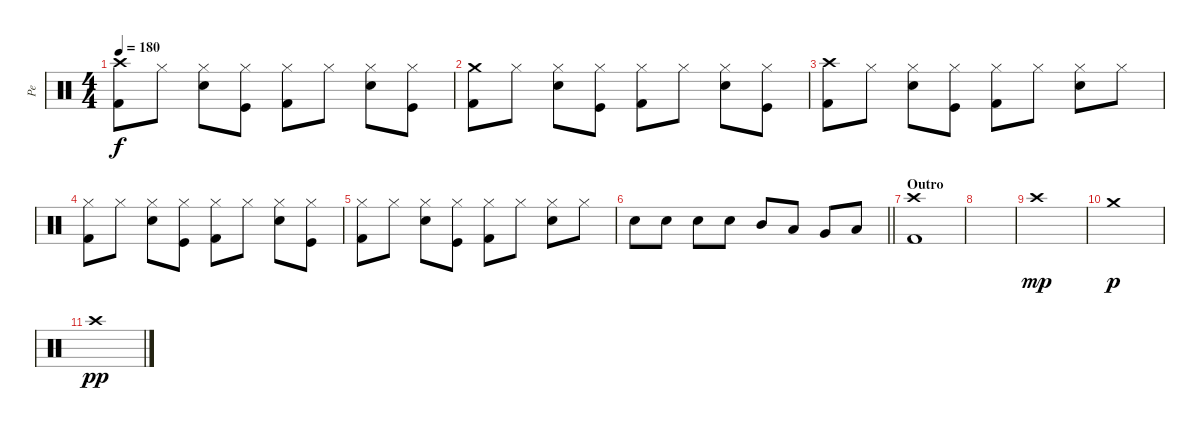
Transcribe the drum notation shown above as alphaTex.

\track ("Pe" "Pe") {instrument percussion}
\staff {score}
\articulation defaults
\ts (4 4)
\tempo 180
\clef neutral
\ks c
("Kick (hit) 2" "Crash high (hit)").8{dy f} "Hi-Hat (closed)".8 ("Electric Snare (hit)" "Hi-Hat (closed)").8 ("Kick (hit)" "Hi-Hat (closed)").8 ("Kick (hit) 2" "Hi-Hat (closed)").8 "Hi-Hat (closed)".8 ("Electric Snare (hit)" "Hi-Hat (closed)").8 ("Kick (hit)" "Hi-Hat (closed)").8 |
("Kick (hit) 2" "Crash medium (hit)").8 "Hi-Hat (closed)".8 ("Electric Snare (hit)" "Hi-Hat (closed)").8 ("Kick (hit)" "Hi-Hat (closed)").8 ("Kick (hit) 2" "Hi-Hat (closed)").8 "Hi-Hat (closed)".8 ("Electric Snare (hit)" "Hi-Hat (closed)").8 ("Kick (hit)" "Hi-Hat (closed)").8 |
("Kick (hit) 2" "Crash high (hit)").8 "Hi-Hat (closed)".8 ("Electric Snare (hit)" "Hi-Hat (closed)").8 ("Kick (hit)" "Hi-Hat (closed)").8 ("Kick (hit) 2" "Hi-Hat (closed)").8 "Hi-Hat (closed)".8 ("Electric Snare (hit)" "Hi-Hat (closed)").8 "Hi-Hat (closed)".8 |
("Kick (hit) 2" "Hi-Hat (closed)").8 "Hi-Hat (closed)".8 ("Electric Snare (hit)" "Hi-Hat (closed)").8 ("Kick (hit)" "Hi-Hat (closed)").8 ("Kick (hit) 2" "Hi-Hat (closed)").8 "Hi-Hat (closed)".8 ("Electric Snare (hit)" "Hi-Hat (closed)").8 ("Kick (hit)" "Hi-Hat (closed)").8 |
("Kick (hit) 2" "Hi-Hat (closed)").8 "Hi-Hat (closed)".8 ("Electric Snare (hit)" "Hi-Hat (closed)").8 ("Kick (hit)" "Hi-Hat (closed)").8 ("Kick (hit) 2" "Hi-Hat (closed)").8 "Hi-Hat (closed)".8 ("Electric Snare (hit)" "Hi-Hat (closed)").8 "Hi-Hat (closed)".8 |
\barLineRight lightlight "Electric Snare (hit)".8 "Electric Snare (hit)".8 "Electric Snare (hit)".8 "Electric Snare (hit)".8 "Mid Tom (hit)".8 "Low Tom (hit)".8 "Very Low Tom (hit)".8 "Low Floor Tom (hit)".8
|
\section ("" "Outro")
("Kick (hit) 2" "Crash high (hit)").1 |
|
"Crash high (hit)".1{dy mp} |
"Crash medium (hit)".1{dy p} |
"Crash high (hit)".1{dy pp}
